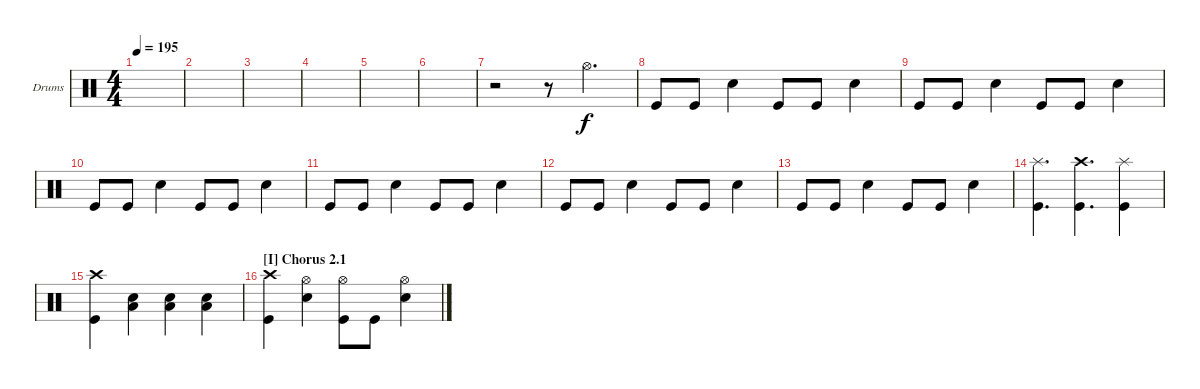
\defaultSystemsLayout 4
\bracketExtendMode groupsimilarinstruments
\firstSystemTrackNameOrientation horizontal
\otherSystemsTrackNameOrientation horizontal
\track ("Drumkit" "Drums") {instrument percussion}
\staff {score}
\articulation defaults
\ts (4 4)
\tempo 195
\clef neutral
\ks c
|
|
|
|
|
|
r.2 r.8 "Hi-Hat (open)".4{d} |
"Kick (hit)".8 "Kick (hit)".8 "Snare (hit) 2".4 "Kick (hit)".8 "Kick (hit)".8 "Snare (hit) 2".4 |
"Kick (hit)".8 "Kick (hit)".8 "Snare (hit) 2".4 "Kick (hit)".8 "Kick (hit)".8 "Snare (hit) 2".4 |
"Kick (hit)".8 "Kick (hit)".8 "Snare (hit) 2".4 "Kick (hit)".8 "Kick (hit)".8 "Snare (hit) 2".4 |
"Kick (hit)".8 "Kick (hit)".8 "Snare (hit) 2".4 "Kick (hit)".8 "Kick (hit)".8 "Snare (hit) 2".4 |
"Kick (hit)".8 "Kick (hit)".8 "Snare (hit) 2".4 "Kick (hit)".8 "Kick (hit)".8 "Snare (hit) 2".4 |
"Kick (hit)".8 "Kick (hit)".8 "Snare (hit) 2".4 "Kick (hit)".8 "Kick (hit)".8 "Snare (hit) 2".4 |
("Kick (hit)" "Splash (hit)").4{d} ("Kick (hit)" "Crash high (hit)").4{d} ("Kick (hit)" "Splash (hit)").4 |
("Crash high (hit)" "Kick (hit)").4 ("Low Tom (hit)" "Snare (hit) 2").4 ("Low Tom (hit)" "Snare (hit) 2").4 ("Low Tom (hit)" "Snare (hit) 2").4 |
\section ("I" "Chorus 2.1")
("Kick (hit)" "Crash high (hit)").4 ("Snare (hit) 2" "Hi-Hat (open)").4 ("Kick (hit)" "Hi-Hat (open)").8 "Kick (hit)".8 ("Snare (hit) 2" "Hi-Hat (open)").4
